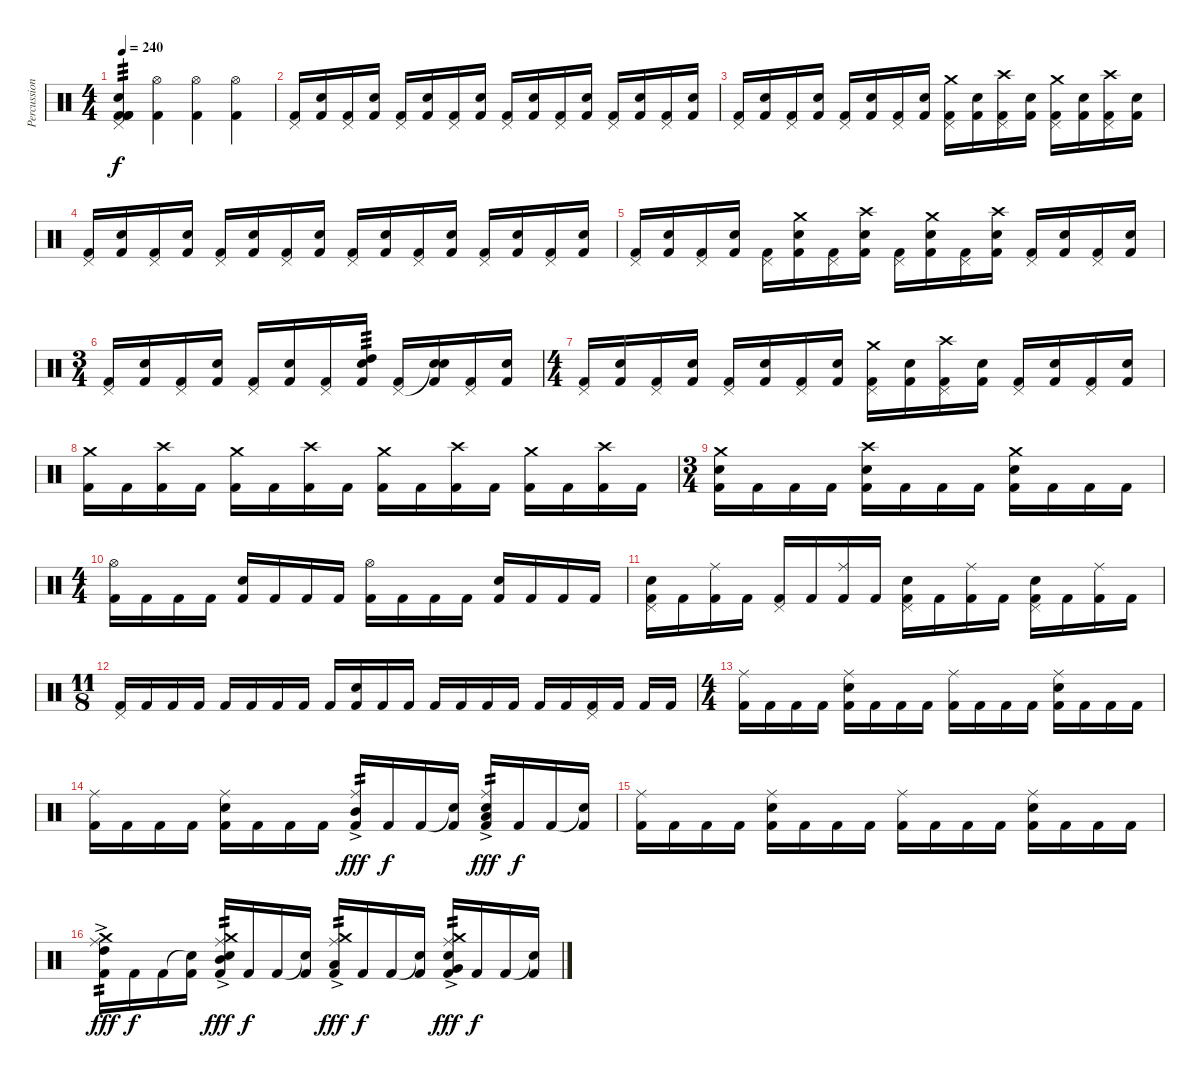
\track ("Percussions" "Percussion") {instrument percussion}
\staff {score}
\articulation defaults
\ts (4 4)
\tempo 240
\clef neutral
\ks c
("Snare (hit) 2" "Pedal Hi-Hat (hit)" "Kick (hit) 2" "Kick (hit) 2" "Kick (hit) 2").4{tp 3 dy f} ("Hi-Hat (open)" "Kick (hit) 2").4 ("Hi-Hat (open)" "Kick (hit) 2").4 ("Hi-Hat (open)" "Kick (hit) 2").4 |
("Pedal Hi-Hat (hit)" "Kick (hit) 2").16 ("Snare (hit) 2" "Kick (hit) 2").16 ("Pedal Hi-Hat (hit)" "Kick (hit) 2").16 ("Snare (hit) 2" "Kick (hit) 2").16 ("Pedal Hi-Hat (hit)" "Kick (hit) 2").16 ("Snare (hit) 2" "Kick (hit) 2").16 ("Pedal Hi-Hat (hit)" "Kick (hit) 2").16 ("Snare (hit) 2" "Kick (hit) 2").16 ("Pedal Hi-Hat (hit)" "Kick (hit) 2").16 ("Snare (hit) 2" "Kick (hit) 2").16 ("Pedal Hi-Hat (hit)" "Kick (hit) 2").16 ("Snare (hit) 2" "Kick (hit) 2").16 ("Pedal Hi-Hat (hit)" "Kick (hit) 2").16 ("Snare (hit) 2" "Kick (hit) 2").16 ("Pedal Hi-Hat (hit)" "Kick (hit) 2").16 ("Snare (hit) 2" "Kick (hit) 2").16 |
("Pedal Hi-Hat (hit)" "Kick (hit) 2").16 ("Snare (hit) 2" "Kick (hit) 2").16 ("Pedal Hi-Hat (hit)" "Kick (hit) 2").16 ("Snare (hit) 2" "Kick (hit) 2").16 ("Pedal Hi-Hat (hit)" "Kick (hit) 2").16 ("Snare (hit) 2" "Kick (hit) 2").16 ("Pedal Hi-Hat (hit)" "Kick (hit) 2").16 ("Snare (hit) 2" "Kick (hit) 2").16 ("Crash medium (hit)" "Pedal Hi-Hat (hit)" "Kick (hit) 2").16 ("Snare (hit) 2" "Kick (hit) 2").16 ("Crash high (hit)" "Pedal Hi-Hat (hit)" "Kick (hit) 2").16 ("Snare (hit) 2" "Kick (hit) 2").16 ("Crash medium (hit)" "Pedal Hi-Hat (hit)" "Kick (hit) 2").16 ("Snare (hit) 2" "Kick (hit) 2").16 ("Crash high (hit)" "Pedal Hi-Hat (hit)" "Kick (hit) 2").16 ("Snare (hit) 2" "Kick (hit) 2").16 |
("Pedal Hi-Hat (hit)" "Kick (hit) 2").16 ("Snare (hit) 2" "Kick (hit) 2").16 ("Pedal Hi-Hat (hit)" "Kick (hit) 2").16 ("Snare (hit) 2" "Kick (hit) 2").16 ("Pedal Hi-Hat (hit)" "Kick (hit) 2").16 ("Snare (hit) 2" "Kick (hit) 2").16 ("Pedal Hi-Hat (hit)" "Kick (hit) 2").16 ("Snare (hit) 2" "Kick (hit) 2").16 ("Pedal Hi-Hat (hit)" "Kick (hit) 2").16 ("Snare (hit) 2" "Kick (hit) 2").16 ("Pedal Hi-Hat (hit)" "Kick (hit) 2").16 ("Snare (hit) 2" "Kick (hit) 2").16 ("Pedal Hi-Hat (hit)" "Kick (hit) 2").16 ("Snare (hit) 2" "Kick (hit) 2").16 ("Pedal Hi-Hat (hit)" "Kick (hit) 2").16 ("Snare (hit) 2" "Kick (hit) 2").16 |
("Pedal Hi-Hat (hit)" "Kick (hit) 2").16 ("Snare (hit) 2" "Kick (hit) 2").16 ("Pedal Hi-Hat (hit)" "Kick (hit) 2").16 ("Snare (hit) 2" "Kick (hit) 2").16 ("Pedal Hi-Hat (hit)" "Kick (hit) 2").16 ("Crash medium (hit)" "Snare (hit) 2" "Kick (hit) 2").16 ("Pedal Hi-Hat (hit)" "Kick (hit) 2").16 ("Crash high (hit)" "Snare (hit) 2" "Kick (hit) 2").16 ("Pedal Hi-Hat (hit)" "Kick (hit) 2").16 ("Crash medium (hit)" "Snare (hit) 2" "Kick (hit) 2").16 ("Pedal Hi-Hat (hit)" "Kick (hit) 2").16 ("Crash high (hit)" "Snare (hit) 2" "Kick (hit) 2").16 ("Pedal Hi-Hat (hit)" "Kick (hit) 2").16 ("Snare (hit) 2" "Kick (hit) 2").16 ("Pedal Hi-Hat (hit)" "Kick (hit) 2").16 ("Snare (hit) 2" "Kick (hit) 2").16 |
\ts (3 4)
("Pedal Hi-Hat (hit)" "Kick (hit) 2").16 ("Snare (hit) 2" "Kick (hit) 2").16 ("Pedal Hi-Hat (hit)" "Kick (hit) 2").16 ("Snare (hit) 2" "Kick (hit) 2").16 ("Pedal Hi-Hat (hit)" "Kick (hit) 2").16 ("Snare (hit) 2" "Kick (hit) 2").16 ("Pedal Hi-Hat (hit)" "Kick (hit) 2").16 ("High Tom (hit)" "Snare (hit) 2" "Kick (hit) 2").16{tp 3} ("Pedal Hi-Hat (hit)" "Kick (hit) 2").16 ("Snare (hit)"{t} "Snare (hit) 2" "Kick (hit) 2").16 ("Pedal Hi-Hat (hit)" "Kick (hit) 2").16 ("Snare (hit) 2" "Kick (hit) 2").16 |
\ts (4 4)
("Pedal Hi-Hat (hit)" "Kick (hit) 2").16 ("Snare (hit) 2" "Kick (hit) 2").16 ("Pedal Hi-Hat (hit)" "Kick (hit) 2").16 ("Snare (hit) 2" "Kick (hit) 2").16 ("Pedal Hi-Hat (hit)" "Kick (hit) 2").16 ("Snare (hit) 2" "Kick (hit) 2").16 ("Pedal Hi-Hat (hit)" "Kick (hit) 2").16 ("Snare (hit) 2" "Kick (hit) 2").16 ("Crash medium (hit)" "Pedal Hi-Hat (hit)" "Kick (hit) 2").16 ("Snare (hit) 2" "Kick (hit) 2").16 ("Crash high (hit)" "Pedal Hi-Hat (hit)" "Kick (hit) 2").16 ("Snare (hit) 2" "Kick (hit) 2").16 ("Pedal Hi-Hat (hit)" "Kick (hit) 2").16 ("Snare (hit) 2" "Kick (hit) 2").16 ("Pedal Hi-Hat (hit)" "Kick (hit) 2").16 ("Snare (hit) 2" "Kick (hit) 2").16 |
("Crash medium (hit)" "Kick (hit) 2").16 "Kick (hit) 2".16 ("Crash high (hit)" "Kick (hit) 2").16 "Kick (hit) 2".16 ("Crash medium (hit)" "Kick (hit) 2").16 "Kick (hit) 2".16 ("Crash high (hit)" "Kick (hit) 2").16 "Kick (hit) 2".16 ("Crash medium (hit)" "Kick (hit) 2").16 "Kick (hit) 2".16 ("Crash high (hit)" "Kick (hit) 2").16 "Kick (hit) 2".16 ("Crash medium (hit)" "Kick (hit) 2").16 "Kick (hit) 2".16 ("Crash high (hit)" "Kick (hit) 2").16 "Kick (hit) 2".16 |
\ts (3 4)
("Crash medium (hit)" "Snare (hit) 2" "Kick (hit) 2").16 "Kick (hit) 2".16 "Kick (hit) 2".16 "Kick (hit) 2".16 ("Crash high (hit)" "Snare (hit) 2" "Kick (hit) 2").16 "Kick (hit) 2".16 "Kick (hit) 2".16 "Kick (hit) 2".16 ("Crash medium (hit)" "Snare (hit) 2" "Kick (hit) 2").16 "Kick (hit) 2".16 "Kick (hit) 2".16 "Kick (hit) 2".16 |
\ts (4 4)
("Hi-Hat (open)" "Kick (hit) 2").16 "Kick (hit) 2".16 "Kick (hit) 2".16 "Kick (hit) 2".16 ("Snare (hit) 2" "Kick (hit) 2").16 "Kick (hit) 2".16 "Kick (hit) 2".16 "Kick (hit) 2".16 ("Hi-Hat (open)" "Kick (hit) 2").16 "Kick (hit) 2".16 "Kick (hit) 2".16 "Kick (hit) 2".16 ("Snare (hit) 2" "Kick (hit) 2").16 "Kick (hit) 2".16 "Kick (hit) 2".16 "Kick (hit) 2".16 |
("Snare (hit) 2" "Pedal Hi-Hat (hit)" "Kick (hit) 2").16 "Kick (hit) 2".16 ("Ride (middle)" "Kick (hit) 2").16 "Kick (hit) 2".16 ("Pedal Hi-Hat (hit)" "Kick (hit) 2").16 "Kick (hit) 2".16 ("Ride (middle)" "Kick (hit) 2").16 "Kick (hit) 2".16 ("Snare (hit) 2" "Pedal Hi-Hat (hit)" "Kick (hit) 2").16 "Kick (hit) 2".16 ("Ride (middle)" "Kick (hit) 2").16 "Kick (hit) 2".16 ("Snare (hit) 2" "Pedal Hi-Hat (hit)" "Kick (hit) 2").16 "Kick (hit) 2".16 ("Ride (middle)" "Kick (hit) 2").16 "Kick (hit) 2".16 |
\ts (11 8)
("Pedal Hi-Hat (hit)" "Kick (hit) 2").16 "Kick (hit) 2".16 "Kick (hit) 2".16 "Kick (hit) 2".16 "Kick (hit) 2".16 "Kick (hit) 2".16 "Kick (hit) 2".16 "Kick (hit) 2".16 "Kick (hit) 2".16 ("Snare (hit) 2" "Kick (hit) 2").16 "Kick (hit) 2".16 "Kick (hit) 2".16 "Kick (hit) 2".16 "Kick (hit) 2".16 "Kick (hit) 2".16 "Kick (hit) 2".16 "Kick (hit) 2".16 "Kick (hit) 2".16 ("Pedal Hi-Hat (hit)" "Kick (hit) 2").16 "Kick (hit) 2".16 "Kick (hit) 2".16 "Kick (hit) 2".16 |
\ts (4 4)
("Ride (middle)" "Kick (hit) 2").16 "Kick (hit) 2".16 "Kick (hit) 2".16 "Kick (hit) 2".16 ("Snare (hit) 2" "Ride (middle)" "Kick (hit) 2").16 "Kick (hit) 2".16 "Kick (hit) 2".16 "Kick (hit) 2".16 ("Ride (middle)" "Kick (hit) 2").16 "Kick (hit) 2".16 "Kick (hit) 2".16 "Kick (hit) 2".16 ("Snare (hit) 2" "Ride (middle)" "Kick (hit) 2").16 "Kick (hit) 2".16 "Kick (hit) 2".16 "Kick (hit) 2".16 |
("Ride (middle)" "Kick (hit) 2").16 "Kick (hit) 2".16 "Kick (hit) 2".16 "Kick (hit) 2".16 ("Snare (hit) 2" "Ride (middle)" "Kick (hit) 2").16 "Kick (hit) 2".16 "Kick (hit) 2".16 "Kick (hit) 2".16 ("Mid Tom (hit)"{ac} "Ride (middle)" "Kick (hit) 2").16{tp 2 dy fff} "Kick (hit) 2".16{dy f} "Kick (hit) 2".16 ("Snare (hit)"{t} "Kick (hit) 2").16 ("Low Tom (hit)"{ac} "Snare (hit) 2" "Ride (middle)" "Kick (hit) 2").16{tp 2 dy fff} "Kick (hit) 2".16{dy f} "Kick (hit) 2".16 ("Snare (hit)"{t} "Kick (hit) 2").16 |
("Ride (middle)" "Kick (hit) 2").16 "Kick (hit) 2".16 "Kick (hit) 2".16 "Kick (hit) 2".16 ("Snare (hit) 2" "Ride (middle)" "Kick (hit) 2").16 "Kick (hit) 2".16 "Kick (hit) 2".16 "Kick (hit) 2".16 ("Ride (middle)" "Kick (hit) 2").16 "Kick (hit) 2".16 "Kick (hit) 2".16 "Kick (hit) 2".16 ("Snare (hit) 2" "Ride (middle)" "Kick (hit) 2").16 "Kick (hit) 2".16 "Kick (hit) 2".16 "Kick (hit) 2".16 |
("High Tom (hit)"{ac} "Crash medium (hit)" "Ride (middle)" "Kick (hit) 2").16{tp 2 dy fff} "Kick (hit) 2".16{dy f} "Kick (hit) 2".16 ("Snare (hit)"{t} "Kick (hit) 2").16 ("Mid Tom (hit)"{ac} "Crash medium (hit)" "Snare (hit) 2" "Ride (middle)" "Kick (hit) 2").16{tp 2 dy fff} "Kick (hit) 2".16{dy f} "Kick (hit) 2".16 ("Snare (hit)"{t} "Kick (hit) 2").16 ("Low Tom (hit)"{ac} "Crash medium (hit)" "Ride (middle)" "Kick (hit) 2").16{tp 2 dy fff} "Kick (hit) 2".16{dy f} "Kick (hit) 2".16 ("Snare (hit)"{t} "Kick (hit) 2").16 ("Very Low Tom (hit)"{ac} "Crash medium (hit)" "Snare (hit) 2" "Ride (middle)" "Kick (hit) 2").16{tp 2 dy fff} "Kick (hit) 2".16{dy f} "Kick (hit) 2".16 ("Snare (hit)"{t} "Kick (hit) 2").16
